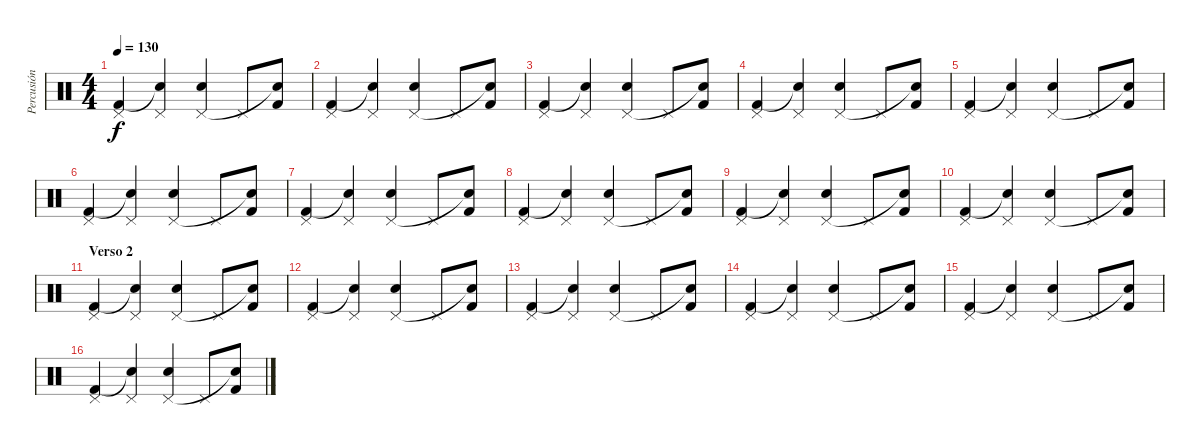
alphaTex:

\track ("Percusión" "Percusión") {instrument percussion}
\staff {score}
\articulation defaults
\ts (4 4)
\tempo 130
\clef neutral
\ks c
("Kick (hit) 2" "Pedal Hi-Hat (hit)").4{dy f} ("Snare (hit)"{t} "Pedal Hi-Hat (hit)").4 ("Snare (hit) 2" "Pedal Hi-Hat (hit)").4 "Pedal Hi-Hat (hit)".8 ("Kick (hit) 2" "Snare (hit)"{t}).8 |
("Kick (hit) 2" "Pedal Hi-Hat (hit)").4 ("Snare (hit)"{t} "Pedal Hi-Hat (hit)").4 ("Snare (hit) 2" "Pedal Hi-Hat (hit)").4 "Pedal Hi-Hat (hit)".8 ("Kick (hit) 2" "Snare (hit)"{t}).8 |
("Kick (hit) 2" "Pedal Hi-Hat (hit)").4 ("Snare (hit)"{t} "Pedal Hi-Hat (hit)").4 ("Snare (hit) 2" "Pedal Hi-Hat (hit)").4 "Pedal Hi-Hat (hit)".8 ("Kick (hit) 2" "Snare (hit)"{t}).8 |
("Kick (hit) 2" "Pedal Hi-Hat (hit)").4 ("Snare (hit)"{t} "Pedal Hi-Hat (hit)").4 ("Snare (hit) 2" "Pedal Hi-Hat (hit)").4 "Pedal Hi-Hat (hit)".8 ("Kick (hit) 2" "Snare (hit)"{t}).8 |
("Kick (hit) 2" "Pedal Hi-Hat (hit)").4 ("Snare (hit)"{t} "Pedal Hi-Hat (hit)").4 ("Snare (hit) 2" "Pedal Hi-Hat (hit)").4 "Pedal Hi-Hat (hit)".8 ("Kick (hit) 2" "Snare (hit)"{t}).8 |
("Kick (hit) 2" "Pedal Hi-Hat (hit)").4 ("Snare (hit)"{t} "Pedal Hi-Hat (hit)").4 ("Snare (hit) 2" "Pedal Hi-Hat (hit)").4 "Pedal Hi-Hat (hit)".8 ("Kick (hit) 2" "Snare (hit)"{t}).8 |
("Kick (hit) 2" "Pedal Hi-Hat (hit)").4 ("Snare (hit)"{t} "Pedal Hi-Hat (hit)").4 ("Snare (hit) 2" "Pedal Hi-Hat (hit)").4 "Pedal Hi-Hat (hit)".8 ("Kick (hit) 2" "Snare (hit)"{t}).8 |
("Kick (hit) 2" "Pedal Hi-Hat (hit)").4 ("Snare (hit)"{t} "Pedal Hi-Hat (hit)").4 ("Snare (hit) 2" "Pedal Hi-Hat (hit)").4 "Pedal Hi-Hat (hit)".8 ("Kick (hit) 2" "Snare (hit)"{t}).8 |
("Kick (hit) 2" "Pedal Hi-Hat (hit)").4 ("Snare (hit)"{t} "Pedal Hi-Hat (hit)").4 ("Snare (hit) 2" "Pedal Hi-Hat (hit)").4 "Pedal Hi-Hat (hit)".8 ("Kick (hit) 2" "Snare (hit)"{t}).8 |
("Kick (hit) 2" "Pedal Hi-Hat (hit)").4 ("Snare (hit)"{t} "Pedal Hi-Hat (hit)").4 ("Snare (hit) 2" "Pedal Hi-Hat (hit)").4 "Pedal Hi-Hat (hit)".8 ("Kick (hit) 2" "Snare (hit)"{t}).8 |
\section ("" "Verso 2")
("Kick (hit) 2" "Pedal Hi-Hat (hit)").4 ("Snare (hit)"{t} "Pedal Hi-Hat (hit)").4 ("Snare (hit) 2" "Pedal Hi-Hat (hit)").4 "Pedal Hi-Hat (hit)".8 ("Kick (hit) 2" "Snare (hit)"{t}).8 |
("Kick (hit) 2" "Pedal Hi-Hat (hit)").4 ("Snare (hit)"{t} "Pedal Hi-Hat (hit)").4 ("Snare (hit) 2" "Pedal Hi-Hat (hit)").4 "Pedal Hi-Hat (hit)".8 ("Kick (hit) 2" "Snare (hit)"{t}).8 |
("Kick (hit) 2" "Pedal Hi-Hat (hit)").4 ("Snare (hit)"{t} "Pedal Hi-Hat (hit)").4 ("Snare (hit) 2" "Pedal Hi-Hat (hit)").4 "Pedal Hi-Hat (hit)".8 ("Kick (hit) 2" "Snare (hit)"{t}).8 |
("Kick (hit) 2" "Pedal Hi-Hat (hit)").4 ("Snare (hit)"{t} "Pedal Hi-Hat (hit)").4 ("Snare (hit) 2" "Pedal Hi-Hat (hit)").4 "Pedal Hi-Hat (hit)".8 ("Kick (hit) 2" "Snare (hit)"{t}).8 |
("Kick (hit) 2" "Pedal Hi-Hat (hit)").4 ("Snare (hit)"{t} "Pedal Hi-Hat (hit)").4 ("Snare (hit) 2" "Pedal Hi-Hat (hit)").4 "Pedal Hi-Hat (hit)".8 ("Kick (hit) 2" "Snare (hit)"{t}).8 |
("Kick (hit) 2" "Pedal Hi-Hat (hit)").4 ("Snare (hit)"{t} "Pedal Hi-Hat (hit)").4 ("Snare (hit) 2" "Pedal Hi-Hat (hit)").4 "Pedal Hi-Hat (hit)".8 ("Kick (hit) 2" "Snare (hit)"{t}).8
